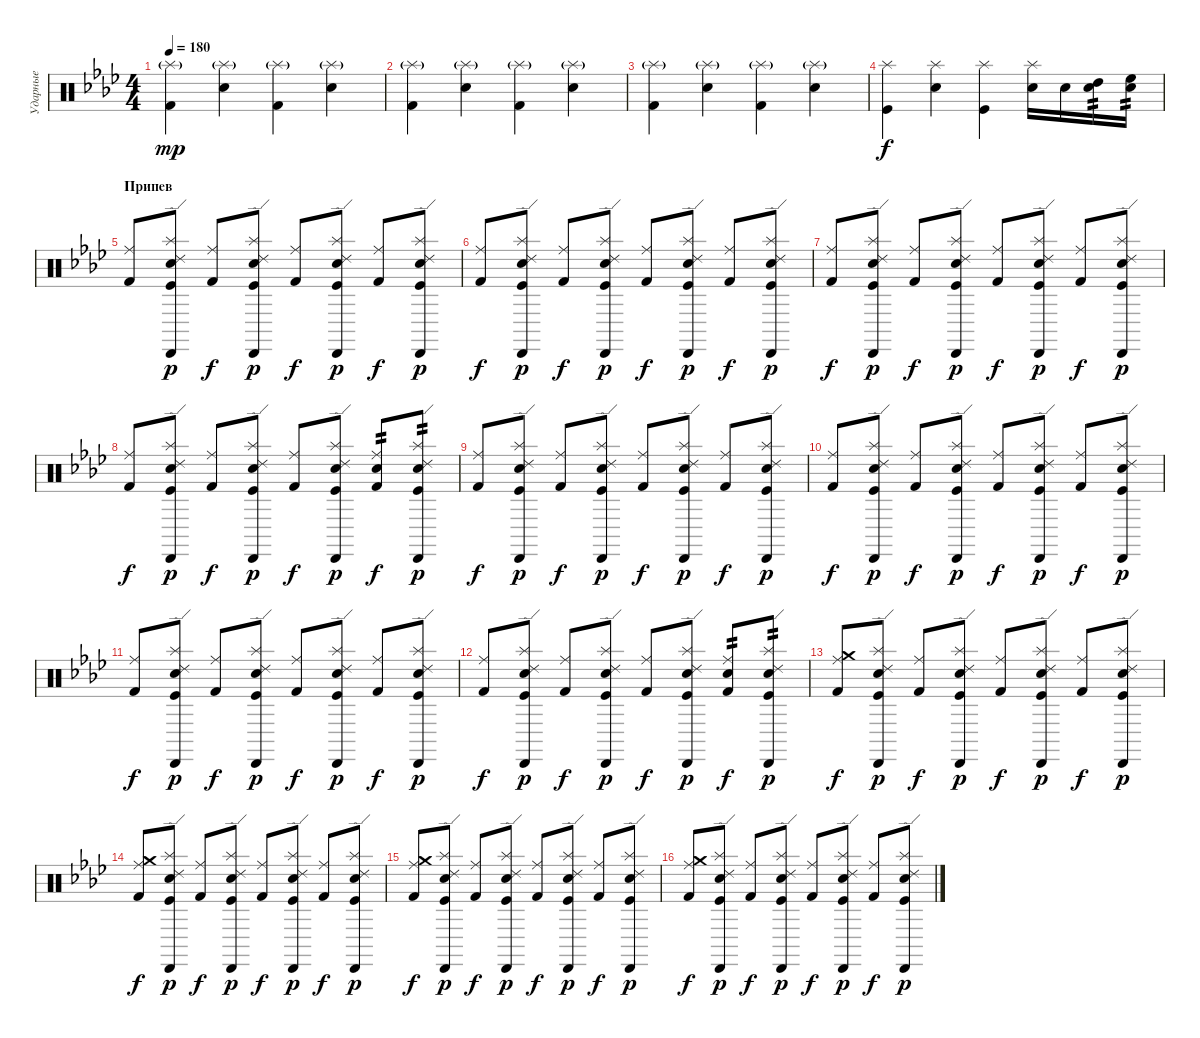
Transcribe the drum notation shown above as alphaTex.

\track ("Ударные" "Ударные") {instrument percussion}
\staff {score}
\articulation defaults
\ts (4 4)
\tempo 180
\clef neutral
\ks ab
("Kick (hit) 2" "Splash (hit)"{g}).4{dy mp} ("Electric Snare (hit)" "Splash (hit)"{g}).4 ("Kick (hit) 2" "Splash (hit)"{g}).4 ("Electric Snare (hit)" "Splash (hit)"{g}).4 |
("Kick (hit) 2" "Splash (hit)"{g}).4 ("Electric Snare (hit)" "Splash (hit)"{g}).4 ("Kick (hit) 2" "Splash (hit)"{g}).4 ("Electric Snare (hit)" "Splash (hit)"{g}).4 |
("Kick (hit) 2" "Splash (hit)"{g}).4 ("Electric Snare (hit)" "Splash (hit)"{g}).4 ("Kick (hit) 2" "Splash (hit)"{g}).4 ("Electric Snare (hit)" "Splash (hit)"{g}).4 |
("Kick (hit)" "Splash (hit)").4{dy f} ("Electric Snare (hit)" "Splash (hit)").4 ("Kick (hit)" "Splash (hit)").4 ("Electric Snare (hit)" "Splash (hit)").16 "Electric Snare (hit)".16 ("Electric Snare (hit)" "High Tom (hit)").16{tp 2} ("Electric Snare (hit)" "High Floor Tom (hit)").16{tp 2} |
\section ("" "Припев")
("Ride (middle)" "Kick (hit) 2").8 ("Ride (edge) 2" "Cabasa (hit)" "Electric Snare (hit)" "Kick (hit)" "Splash (hit)").8{dy p} ("Ride (middle)" "Kick (hit) 2").8{dy f} ("Ride (edge) 2" "Cabasa (hit)" "Electric Snare (hit)" "Kick (hit)" "Splash (hit)").8{dy p} ("Ride (middle)" "Kick (hit) 2").8{dy f} ("Ride (edge) 2" "Cabasa (hit)" "Electric Snare (hit)" "Kick (hit)" "Splash (hit)").8{dy p} ("Ride (middle)" "Kick (hit) 2").8{dy f} ("Ride (edge) 2" "Cabasa (hit)" "Electric Snare (hit)" "Kick (hit)" "Splash (hit)").8{dy p} |
("Ride (middle)" "Kick (hit) 2").8{dy f} ("Ride (edge) 2" "Cabasa (hit)" "Electric Snare (hit)" "Kick (hit)" "Splash (hit)").8{dy p} ("Ride (middle)" "Kick (hit) 2").8{dy f} ("Ride (edge) 2" "Cabasa (hit)" "Electric Snare (hit)" "Kick (hit)" "Splash (hit)").8{dy p} ("Ride (middle)" "Kick (hit) 2").8{dy f} ("Ride (edge) 2" "Cabasa (hit)" "Electric Snare (hit)" "Kick (hit)" "Splash (hit)").8{dy p} ("Ride (middle)" "Kick (hit) 2").8{dy f} ("Ride (edge) 2" "Cabasa (hit)" "Electric Snare (hit)" "Kick (hit)" "Splash (hit)").8{dy p} |
("Ride (middle)" "Kick (hit) 2").8{dy f} ("Ride (edge) 2" "Cabasa (hit)" "Electric Snare (hit)" "Kick (hit)" "Splash (hit)").8{dy p} ("Ride (middle)" "Kick (hit) 2").8{dy f} ("Ride (edge) 2" "Cabasa (hit)" "Electric Snare (hit)" "Kick (hit)" "Splash (hit)").8{dy p} ("Ride (middle)" "Kick (hit) 2").8{dy f} ("Ride (edge) 2" "Cabasa (hit)" "Electric Snare (hit)" "Kick (hit)" "Splash (hit)").8{dy p} ("Ride (middle)" "Kick (hit) 2").8{dy f} ("Ride (edge) 2" "Cabasa (hit)" "Electric Snare (hit)" "Kick (hit)" "Splash (hit)").8{dy p} |
("Ride (middle)" "Kick (hit) 2").8{dy f} ("Ride (edge) 2" "Cabasa (hit)" "Electric Snare (hit)" "Kick (hit)" "Splash (hit)").8{dy p} ("Ride (middle)" "Kick (hit) 2").8{dy f} ("Ride (edge) 2" "Cabasa (hit)" "Electric Snare (hit)" "Kick (hit)" "Splash (hit)").8{dy p} ("Ride (middle)" "Kick (hit) 2").8{dy f} ("Ride (edge) 2" "Cabasa (hit)" "Electric Snare (hit)" "Kick (hit)" "Splash (hit)").8{dy p} ("Ride (middle)" "Kick (hit) 2" "Electric Snare (hit)").8{tp 2 dy f} ("Ride (edge) 2" "Cabasa (hit)" "Electric Snare (hit)" "Kick (hit)" "Splash (hit)").8{tp 2 dy p} |
("Ride (middle)" "Kick (hit) 2").8{dy f} ("Ride (edge) 2" "Cabasa (hit)" "Electric Snare (hit)" "Kick (hit)" "Splash (hit)").8{dy p} ("Ride (middle)" "Kick (hit) 2").8{dy f} ("Ride (edge) 2" "Cabasa (hit)" "Electric Snare (hit)" "Kick (hit)" "Splash (hit)").8{dy p} ("Ride (middle)" "Kick (hit) 2").8{dy f} ("Ride (edge) 2" "Cabasa (hit)" "Electric Snare (hit)" "Kick (hit)" "Splash (hit)").8{dy p} ("Ride (middle)" "Kick (hit) 2").8{dy f} ("Ride (edge) 2" "Cabasa (hit)" "Electric Snare (hit)" "Kick (hit)" "Splash (hit)").8{dy p} |
("Ride (middle)" "Kick (hit) 2").8{dy f} ("Ride (edge) 2" "Cabasa (hit)" "Electric Snare (hit)" "Kick (hit)" "Splash (hit)").8{dy p} ("Ride (middle)" "Kick (hit) 2").8{dy f} ("Ride (edge) 2" "Cabasa (hit)" "Electric Snare (hit)" "Kick (hit)" "Splash (hit)").8{dy p} ("Ride (middle)" "Kick (hit) 2").8{dy f} ("Ride (edge) 2" "Cabasa (hit)" "Electric Snare (hit)" "Kick (hit)" "Splash (hit)").8{dy p} ("Ride (middle)" "Kick (hit) 2").8{dy f} ("Ride (edge) 2" "Cabasa (hit)" "Electric Snare (hit)" "Kick (hit)" "Splash (hit)").8{dy p} |
("Ride (middle)" "Kick (hit) 2").8{dy f} ("Ride (edge) 2" "Cabasa (hit)" "Electric Snare (hit)" "Kick (hit)" "Splash (hit)").8{dy p} ("Ride (middle)" "Kick (hit) 2").8{dy f} ("Ride (edge) 2" "Cabasa (hit)" "Electric Snare (hit)" "Kick (hit)" "Splash (hit)").8{dy p} ("Ride (middle)" "Kick (hit) 2").8{dy f} ("Ride (edge) 2" "Cabasa (hit)" "Electric Snare (hit)" "Kick (hit)" "Splash (hit)").8{dy p} ("Ride (middle)" "Kick (hit) 2").8{dy f} ("Ride (edge) 2" "Cabasa (hit)" "Electric Snare (hit)" "Kick (hit)" "Splash (hit)").8{dy p} |
("Ride (middle)" "Kick (hit) 2").8{dy f} ("Ride (edge) 2" "Cabasa (hit)" "Electric Snare (hit)" "Kick (hit)" "Splash (hit)").8{dy p} ("Ride (middle)" "Kick (hit) 2").8{dy f} ("Ride (edge) 2" "Cabasa (hit)" "Electric Snare (hit)" "Kick (hit)" "Splash (hit)").8{dy p} ("Ride (middle)" "Kick (hit) 2").8{dy f} ("Ride (edge) 2" "Cabasa (hit)" "Electric Snare (hit)" "Kick (hit)" "Splash (hit)").8{dy p} ("Ride (middle)" "Kick (hit) 2" "Electric Snare (hit)").8{tp 2 dy f} ("Ride (edge) 2" "Cabasa (hit)" "Electric Snare (hit)" "Kick (hit)" "Splash (hit)").8{tp 2 dy p} |
("Ride (middle)" "Kick (hit) 2" "Crash medium (hit)").8{dy f} ("Ride (edge) 2" "Cabasa (hit)" "Electric Snare (hit)" "Kick (hit)" "Splash (hit)").8{dy p} ("Ride (middle)" "Kick (hit) 2").8{dy f} ("Ride (edge) 2" "Cabasa (hit)" "Electric Snare (hit)" "Kick (hit)" "Splash (hit)").8{dy p} ("Ride (middle)" "Kick (hit) 2").8{dy f} ("Ride (edge) 2" "Cabasa (hit)" "Electric Snare (hit)" "Kick (hit)" "Splash (hit)").8{dy p} ("Ride (middle)" "Kick (hit) 2").8{dy f} ("Ride (edge) 2" "Cabasa (hit)" "Electric Snare (hit)" "Kick (hit)" "Splash (hit)").8{dy p} |
("Ride (middle)" "Kick (hit) 2" "Crash medium (hit)").8{dy f} ("Ride (edge) 2" "Cabasa (hit)" "Electric Snare (hit)" "Kick (hit)" "Splash (hit)").8{dy p} ("Ride (middle)" "Kick (hit) 2").8{dy f} ("Ride (edge) 2" "Cabasa (hit)" "Electric Snare (hit)" "Kick (hit)" "Splash (hit)").8{dy p} ("Ride (middle)" "Kick (hit) 2").8{dy f} ("Ride (edge) 2" "Cabasa (hit)" "Electric Snare (hit)" "Kick (hit)" "Splash (hit)").8{dy p} ("Ride (middle)" "Kick (hit) 2").8{dy f} ("Ride (edge) 2" "Cabasa (hit)" "Electric Snare (hit)" "Kick (hit)" "Splash (hit)").8{dy p} |
("Ride (middle)" "Kick (hit) 2" "Crash medium (hit)").8{dy f} ("Ride (edge) 2" "Cabasa (hit)" "Electric Snare (hit)" "Kick (hit)" "Splash (hit)").8{dy p} ("Ride (middle)" "Kick (hit) 2").8{dy f} ("Ride (edge) 2" "Cabasa (hit)" "Electric Snare (hit)" "Kick (hit)" "Splash (hit)").8{dy p} ("Ride (middle)" "Kick (hit) 2").8{dy f} ("Ride (edge) 2" "Cabasa (hit)" "Electric Snare (hit)" "Kick (hit)" "Splash (hit)").8{dy p} ("Ride (middle)" "Kick (hit) 2").8{dy f} ("Ride (edge) 2" "Cabasa (hit)" "Electric Snare (hit)" "Kick (hit)" "Splash (hit)").8{dy p} |
("Ride (middle)" "Kick (hit) 2" "Crash medium (hit)").8{dy f} ("Ride (edge) 2" "Cabasa (hit)" "Electric Snare (hit)" "Kick (hit)" "Splash (hit)").8{dy p} ("Ride (middle)" "Kick (hit) 2").8{dy f} ("Ride (edge) 2" "Cabasa (hit)" "Electric Snare (hit)" "Kick (hit)" "Splash (hit)").8{dy p} ("Ride (middle)" "Kick (hit) 2").8{dy f} ("Ride (edge) 2" "Cabasa (hit)" "Electric Snare (hit)" "Kick (hit)" "Splash (hit)").8{dy p} ("Ride (middle)" "Kick (hit) 2").8{dy f} ("Ride (edge) 2" "Cabasa (hit)" "Electric Snare (hit)" "Kick (hit)" "Splash (hit)").8{dy p}
